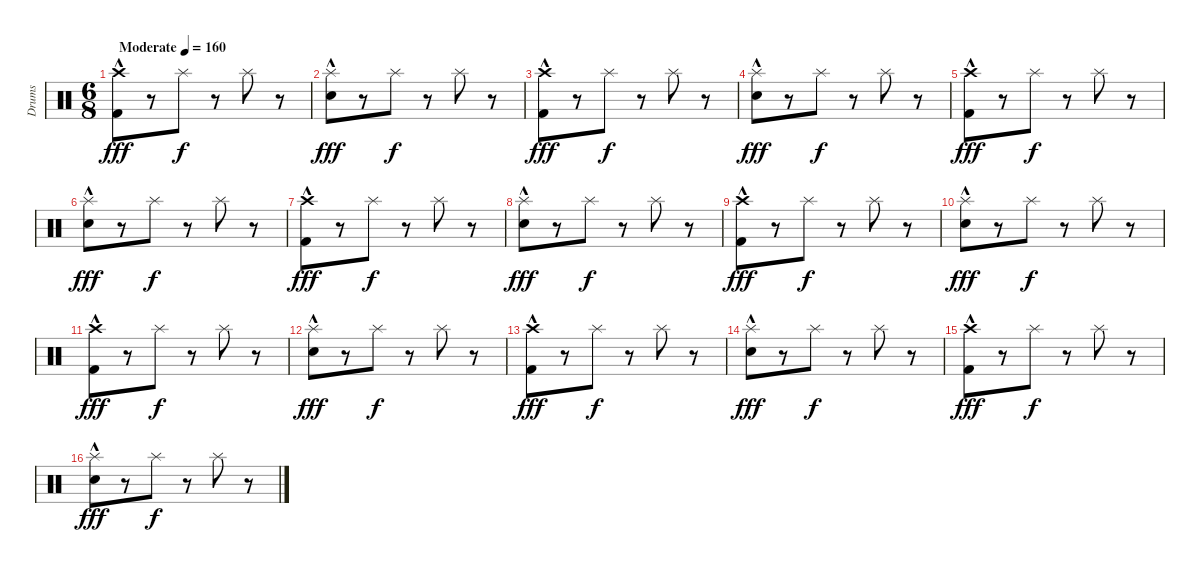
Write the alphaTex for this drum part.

\track ("Drums" "Drums") {instrument percussion}
\staff {score}
\articulation defaults
\ts (6 8)
\tempo (160 "Moderate")
\clef neutral
\ks c
("Crash high (hit)" "Kick (hit) 2"{hac}).8{dy fff} r.8 "Splash (hit)".8{dy f} r.8 "Splash (hit)".8 r.8 |
("Splash (hit)" "Snare (hit) 2"{hac}).8{dy fff} r.8 "Splash (hit)".8{dy f} r.8 "Splash (hit)".8 r.8 |
("Crash high (hit)" "Kick (hit) 2"{hac}).8{dy fff} r.8 "Splash (hit)".8{dy f} r.8 "Splash (hit)".8 r.8 |
("Splash (hit)" "Snare (hit) 2"{hac}).8{dy fff} r.8 "Splash (hit)".8{dy f} r.8 "Splash (hit)".8 r.8 |
("Crash high (hit)" "Kick (hit) 2"{hac}).8{dy fff} r.8 "Splash (hit)".8{dy f} r.8 "Splash (hit)".8 r.8 |
("Splash (hit)" "Snare (hit) 2"{hac}).8{dy fff} r.8 "Splash (hit)".8{dy f} r.8 "Splash (hit)".8 r.8 |
("Crash high (hit)" "Kick (hit) 2"{hac}).8{dy fff} r.8 "Splash (hit)".8{dy f} r.8 "Splash (hit)".8 r.8 |
("Splash (hit)" "Snare (hit) 2"{hac}).8{dy fff} r.8 "Splash (hit)".8{dy f} r.8 "Splash (hit)".8 r.8 |
("Crash high (hit)" "Kick (hit) 2"{hac}).8{dy fff} r.8 "Splash (hit)".8{dy f} r.8 "Splash (hit)".8 r.8 |
("Splash (hit)" "Snare (hit) 2"{hac}).8{dy fff} r.8 "Splash (hit)".8{dy f} r.8 "Splash (hit)".8 r.8 |
("Crash high (hit)" "Kick (hit) 2"{hac}).8{dy fff} r.8 "Splash (hit)".8{dy f} r.8 "Splash (hit)".8 r.8 |
("Splash (hit)" "Snare (hit) 2"{hac}).8{dy fff} r.8 "Splash (hit)".8{dy f} r.8 "Splash (hit)".8 r.8 |
("Crash high (hit)" "Kick (hit) 2"{hac}).8{dy fff} r.8 "Splash (hit)".8{dy f} r.8 "Splash (hit)".8 r.8 |
("Splash (hit)" "Snare (hit) 2"{hac}).8{dy fff} r.8 "Splash (hit)".8{dy f} r.8 "Splash (hit)".8 r.8 |
("Crash high (hit)" "Kick (hit) 2"{hac}).8{dy fff} r.8 "Splash (hit)".8{dy f} r.8 "Splash (hit)".8 r.8 |
("Splash (hit)" "Snare (hit) 2"{hac}).8{dy fff} r.8 "Splash (hit)".8{dy f} r.8 "Splash (hit)".8 r.8
